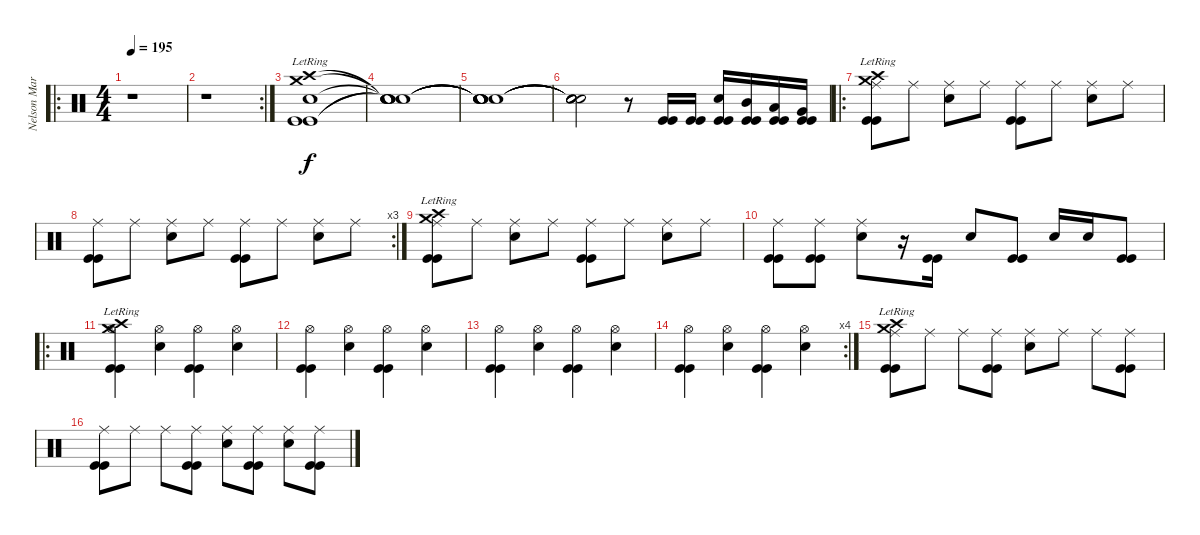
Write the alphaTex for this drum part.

\track ("Nelson Maria" "Nelson Mar") {instrument percussion}
\staff {score}
\articulation defaults
\ro
\ts (4 4)
\tempo 195
\clef neutral
\ks c
r.1{dy f} |
\rc 2
r.1 |
("Crash high (hit)"{lr} "Crash medium (hit)"{lr} "Snare (hit) 2" "Kick (hit)" "Kick (hit)").1 |
("Snare (hit)"{t} "Snare (hit)"{t} "Snare (hit)"{t} "Snare (hit)"{t} "Snare (hit)"{t}).1 |
("Snare (hit)"{t} "Snare (hit)"{t} "Snare (hit)"{t} "Snare (hit)"{t} "Snare (hit)"{t}).1 |
("Snare (hit)"{t} "Snare (hit)"{t} "Snare (hit)"{t} "Snare (hit)"{t} "Snare (hit)"{t}).2 r.8 ("Kick (hit)" "Kick (hit)").16 ("Kick (hit)" "Kick (hit)").16 ("Snare (hit) 2" "Kick (hit)" "Kick (hit)").16 ("Mid Tom (hit)" "Kick (hit)" "Kick (hit)").16 ("Low Tom (hit)" "Kick (hit)" "Kick (hit)").16 ("Very Low Tom (hit)" "Kick (hit)" "Kick (hit)").16 |
\ro
("Crash high (hit)"{lr} "Crash medium (hit)"{lr} "Ride (middle)" "Kick (hit)" "Kick (hit)").8 "Ride (middle)".8 ("Snare (hit) 2" "Ride (middle)").8 "Ride (middle)".8 ("Ride (middle)" "Kick (hit)" "Kick (hit)").8 "Ride (middle)".8 ("Snare (hit) 2" "Ride (middle)").8 "Ride (middle)".8 |
\rc 3
("Ride (middle)" "Kick (hit)" "Kick (hit)").8 "Ride (middle)".8 ("Snare (hit) 2" "Ride (middle)").8 "Ride (middle)".8 ("Ride (middle)" "Kick (hit)" "Kick (hit)").8 "Ride (middle)".8 ("Snare (hit) 2" "Ride (middle)").8 "Ride (middle)".8 |
("Crash high (hit)"{lr} "Crash medium (hit)"{lr} "Ride (middle)" "Kick (hit)" "Kick (hit)").8 "Ride (middle)".8 ("Snare (hit) 2" "Ride (middle)").8 "Ride (middle)".8 ("Ride (middle)" "Kick (hit)" "Kick (hit)").8 "Ride (middle)".8 ("Snare (hit) 2" "Ride (middle)").8 "Ride (middle)".8 |
("Ride (middle)" "Kick (hit)" "Kick (hit)").8 ("Ride (middle)" "Kick (hit)" "Kick (hit)").8 ("Snare (hit) 2" "Ride (middle)").8 r.16 ("Kick (hit)" "Kick (hit)").16 "Snare (hit) 2".8 ("Kick (hit)" "Kick (hit)").8 "Snare (hit) 2".16 "Snare (hit) 2".16 ("Kick (hit)" "Kick (hit)").8 |
\ro
("Crash high (hit)"{lr} "Crash medium (hit)"{lr} "Hi-Hat (open)" "Kick (hit)" "Kick (hit)").4 ("Snare (hit) 2" "Hi-Hat (open)").4 ("Hi-Hat (open)" "Kick (hit)" "Kick (hit)").4 ("Snare (hit) 2" "Hi-Hat (open)").4 |
("Hi-Hat (open)" "Kick (hit)" "Kick (hit)").4 ("Snare (hit) 2" "Hi-Hat (open)").4 ("Hi-Hat (open)" "Kick (hit)" "Kick (hit)").4 ("Snare (hit) 2" "Hi-Hat (open)").4 |
("Hi-Hat (open)" "Kick (hit)" "Kick (hit)").4 ("Snare (hit) 2" "Hi-Hat (open)").4 ("Hi-Hat (open)" "Kick (hit)" "Kick (hit)").4 ("Snare (hit) 2" "Hi-Hat (open)").4 |
\rc 4
("Hi-Hat (open)" "Kick (hit)" "Kick (hit)").4 ("Snare (hit) 2" "Hi-Hat (open)").4 ("Hi-Hat (open)" "Kick (hit)" "Kick (hit)").4 ("Snare (hit) 2" "Hi-Hat (open)").4 |
("Crash high (hit)"{lr} "Crash medium (hit)"{lr} "Ride (middle)" "Kick (hit)" "Kick (hit)").8 "Ride (middle)".8 "Ride (middle)".8 ("Ride (middle)" "Kick (hit)" "Kick (hit)").8 ("Snare (hit) 2" "Ride (middle)").8 "Ride (middle)".8 "Ride (middle)".8 ("Ride (middle)" "Kick (hit)" "Kick (hit)").8 |
("Ride (middle)" "Kick (hit)" "Kick (hit)").8 "Ride (middle)".8 "Ride (middle)".8 ("Ride (middle)" "Kick (hit)" "Kick (hit)").8 ("Snare (hit) 2" "Ride (middle)").8 ("Ride (middle)" "Kick (hit)" "Kick (hit)").8 ("Snare (hit) 2" "Ride (middle)").8 ("Ride (middle)" "Kick (hit)" "Kick (hit)").8
